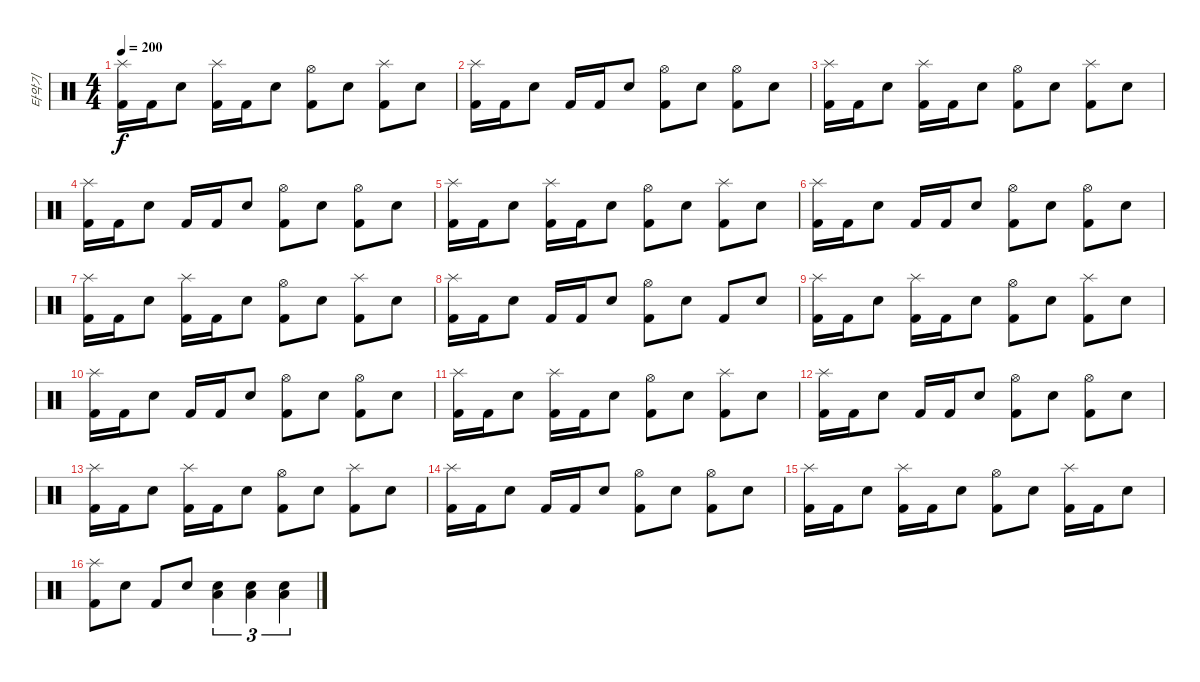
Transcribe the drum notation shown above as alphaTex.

\track ("타악기" "타악기") {instrument percussion}
\staff {score}
\articulation defaults
\ts (4 4)
\tempo 200
\clef neutral
\ks c
("Splash (hit)" "Kick (hit) 2").16{dy f} "Kick (hit) 2".16 "Snare (hit) 2".8 ("Splash (hit)" "Kick (hit) 2").16 "Kick (hit) 2".16 "Snare (hit) 2".8 ("Hi-Hat (open)" "Kick (hit) 2").8 "Snare (hit) 2".8 ("Splash (hit)" "Kick (hit) 2").8 "Snare (hit) 2".8 |
("Splash (hit)" "Kick (hit) 2").16 "Kick (hit) 2".16 "Snare (hit) 2".8 "Kick (hit) 2".16 "Kick (hit) 2".16 "Snare (hit) 2".8 ("Hi-Hat (open)" "Kick (hit) 2").8 "Snare (hit) 2".8 ("Hi-Hat (open)" "Kick (hit) 2").8 "Snare (hit) 2".8 |
("Splash (hit)" "Kick (hit) 2").16 "Kick (hit) 2".16 "Snare (hit) 2".8 ("Splash (hit)" "Kick (hit) 2").16 "Kick (hit) 2".16 "Snare (hit) 2".8 ("Hi-Hat (open)" "Kick (hit) 2").8 "Snare (hit) 2".8 ("Splash (hit)" "Kick (hit) 2").8 "Snare (hit) 2".8 |
("Splash (hit)" "Kick (hit) 2").16 "Kick (hit) 2".16 "Snare (hit) 2".8 "Kick (hit) 2".16 "Kick (hit) 2".16 "Snare (hit) 2".8 ("Hi-Hat (open)" "Kick (hit) 2").8 "Snare (hit) 2".8 ("Hi-Hat (open)" "Kick (hit) 2").8 "Snare (hit) 2".8 |
("Splash (hit)" "Kick (hit) 2").16 "Kick (hit) 2".16 "Snare (hit) 2".8 ("Splash (hit)" "Kick (hit) 2").16 "Kick (hit) 2".16 "Snare (hit) 2".8 ("Hi-Hat (open)" "Kick (hit) 2").8 "Snare (hit) 2".8 ("Splash (hit)" "Kick (hit) 2").8 "Snare (hit) 2".8 |
("Splash (hit)" "Kick (hit) 2").16 "Kick (hit) 2".16 "Snare (hit) 2".8 "Kick (hit) 2".16 "Kick (hit) 2".16 "Snare (hit) 2".8 ("Hi-Hat (open)" "Kick (hit) 2").8 "Snare (hit) 2".8 ("Hi-Hat (open)" "Kick (hit) 2").8 "Snare (hit) 2".8 |
("Splash (hit)" "Kick (hit) 2").16 "Kick (hit) 2".16 "Snare (hit) 2".8 ("Splash (hit)" "Kick (hit) 2").16 "Kick (hit) 2".16 "Snare (hit) 2".8 ("Hi-Hat (open)" "Kick (hit) 2").8 "Snare (hit) 2".8 ("Splash (hit)" "Kick (hit) 2").8 "Snare (hit) 2".8 |
("Splash (hit)" "Kick (hit) 2").16 "Kick (hit) 2".16 "Snare (hit) 2".8 "Kick (hit) 2".16 "Kick (hit) 2".16 "Snare (hit) 2".8 ("Hi-Hat (open)" "Kick (hit) 2").8 "Snare (hit) 2".8 "Kick (hit) 2".8 "Snare (hit) 2".8 |
("Splash (hit)" "Kick (hit) 2").16 "Kick (hit) 2".16 "Snare (hit) 2".8 ("Splash (hit)" "Kick (hit) 2").16 "Kick (hit) 2".16 "Snare (hit) 2".8 ("Hi-Hat (open)" "Kick (hit) 2").8 "Snare (hit) 2".8 ("Splash (hit)" "Kick (hit) 2").8 "Snare (hit) 2".8 |
("Splash (hit)" "Kick (hit) 2").16 "Kick (hit) 2".16 "Snare (hit) 2".8 "Kick (hit) 2".16 "Kick (hit) 2".16 "Snare (hit) 2".8 ("Hi-Hat (open)" "Kick (hit) 2").8 "Snare (hit) 2".8 ("Hi-Hat (open)" "Kick (hit) 2").8 "Snare (hit) 2".8 |
("Splash (hit)" "Kick (hit) 2").16 "Kick (hit) 2".16 "Snare (hit) 2".8 ("Splash (hit)" "Kick (hit) 2").16 "Kick (hit) 2".16 "Snare (hit) 2".8 ("Hi-Hat (open)" "Kick (hit) 2").8 "Snare (hit) 2".8 ("Splash (hit)" "Kick (hit) 2").8 "Snare (hit) 2".8 |
("Splash (hit)" "Kick (hit) 2").16 "Kick (hit) 2".16 "Snare (hit) 2".8 "Kick (hit) 2".16 "Kick (hit) 2".16 "Snare (hit) 2".8 ("Hi-Hat (open)" "Kick (hit) 2").8 "Snare (hit) 2".8 ("Hi-Hat (open)" "Kick (hit) 2").8 "Snare (hit) 2".8 |
("Splash (hit)" "Kick (hit) 2").16 "Kick (hit) 2".16 "Snare (hit) 2".8 ("Splash (hit)" "Kick (hit) 2").16 "Kick (hit) 2".16 "Snare (hit) 2".8 ("Hi-Hat (open)" "Kick (hit) 2").8 "Snare (hit) 2".8 ("Splash (hit)" "Kick (hit) 2").8 "Snare (hit) 2".8 |
("Splash (hit)" "Kick (hit) 2").16 "Kick (hit) 2".16 "Snare (hit) 2".8 "Kick (hit) 2".16 "Kick (hit) 2".16 "Snare (hit) 2".8 ("Hi-Hat (open)" "Kick (hit) 2").8 "Snare (hit) 2".8 ("Hi-Hat (open)" "Kick (hit) 2").8 "Snare (hit) 2".8 |
("Splash (hit)" "Kick (hit) 2").16 "Kick (hit) 2".16 "Snare (hit) 2".8 ("Splash (hit)" "Kick (hit) 2").16 "Kick (hit) 2".16 "Snare (hit) 2".8 ("Hi-Hat (open)" "Kick (hit) 2").8 "Snare (hit) 2".8 ("Splash (hit)" "Kick (hit) 2").16 "Kick (hit) 2".16 "Snare (hit) 2".8 |
("Splash (hit)" "Kick (hit) 2").8 "Snare (hit) 2".8 "Kick (hit) 2".8 "Snare (hit) 2".8 ("Low Tom (hit)" "Snare (hit) 2").4{tu (3 2)} ("Low Tom (hit)" "Snare (hit) 2").4{tu (3 2)} ("Low Tom (hit)" "Snare (hit) 2").4{tu (3 2)}
